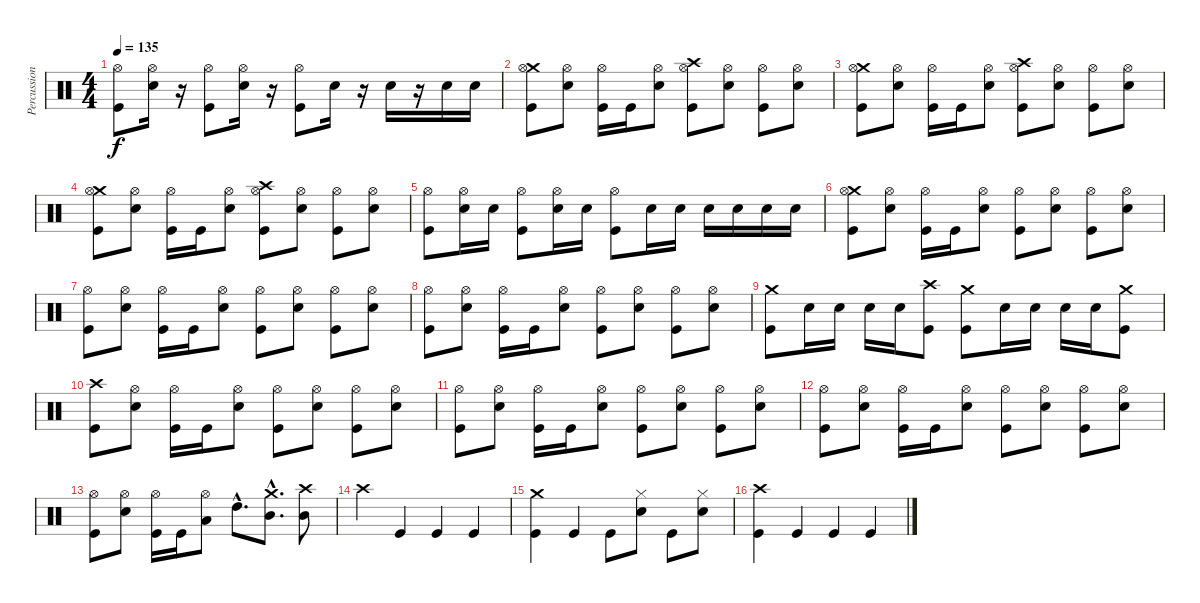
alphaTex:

\track ("Percussions" "Percussion") {instrument percussion}
\staff {score}
\articulation defaults
\ts (4 4)
\tempo 135
\clef neutral
\ks c
("Hi-Hat (open)" "Kick (hit)").8{dy f} ("Hi-Hat (open)" "Snare (hit) 2").16 r.16 ("Hi-Hat (open)" "Kick (hit)").8 ("Hi-Hat (open)" "Snare (hit) 2").16 r.16 ("Hi-Hat (open)" "Kick (hit)").8 "Snare (hit) 2".16 r.16 "Snare (hit) 2".16 r.16 "Snare (hit) 2".16 "Snare (hit) 2".16 |
("Crash medium (hit)" "Hi-Hat (open)" "Kick (hit)").8 ("Hi-Hat (open)" "Snare (hit) 2").8 ("Hi-Hat (open)" "Kick (hit)").16 "Kick (hit)".16 ("Hi-Hat (open)" "Snare (hit) 2").8 ("Crash high (hit)" "Hi-Hat (open)" "Kick (hit)").8 ("Hi-Hat (open)" "Snare (hit) 2").8 ("Hi-Hat (open)" "Kick (hit)").8 ("Hi-Hat (open)" "Snare (hit) 2").8 |
("Crash medium (hit)" "Hi-Hat (open)" "Kick (hit)").8 ("Hi-Hat (open)" "Snare (hit) 2").8 ("Hi-Hat (open)" "Kick (hit)").16 "Kick (hit)".16 ("Hi-Hat (open)" "Snare (hit) 2").8 ("Crash high (hit)" "Hi-Hat (open)" "Kick (hit)").8 ("Hi-Hat (open)" "Snare (hit) 2").8 ("Hi-Hat (open)" "Kick (hit)").8 ("Hi-Hat (open)" "Snare (hit) 2").8 |
("Crash medium (hit)" "Hi-Hat (open)" "Kick (hit)").8 ("Hi-Hat (open)" "Snare (hit) 2").8 ("Hi-Hat (open)" "Kick (hit)").16 "Kick (hit)".16 ("Hi-Hat (open)" "Snare (hit) 2").8 ("Crash high (hit)" "Hi-Hat (open)" "Kick (hit)").8 ("Hi-Hat (open)" "Snare (hit) 2").8 ("Hi-Hat (open)" "Kick (hit)").8 ("Hi-Hat (open)" "Snare (hit) 2").8 |
("Hi-Hat (open)" "Kick (hit)").8 ("Hi-Hat (open)" "Snare (hit) 2").16 "Snare (hit) 2".16 ("Hi-Hat (open)" "Kick (hit)").8 ("Hi-Hat (open)" "Snare (hit) 2").16 "Snare (hit) 2".16 ("Hi-Hat (open)" "Kick (hit)").8 "Snare (hit) 2".16 "Snare (hit) 2".16 "Snare (hit) 2".16 "Snare (hit) 2".16 "Snare (hit) 2".16 "Snare (hit) 2".16 |
("Crash medium (hit)" "Hi-Hat (open)" "Kick (hit)").8 ("Hi-Hat (open)" "Snare (hit) 2").8 ("Hi-Hat (open)" "Kick (hit)").16 "Kick (hit)".16 ("Hi-Hat (open)" "Snare (hit) 2").8 ("Hi-Hat (open)" "Kick (hit)").8 ("Hi-Hat (open)" "Snare (hit) 2").8 ("Hi-Hat (open)" "Kick (hit)").8 ("Hi-Hat (open)" "Snare (hit) 2").8 |
("Hi-Hat (open)" "Kick (hit)").8 ("Hi-Hat (open)" "Snare (hit) 2").8 ("Hi-Hat (open)" "Kick (hit)").16 "Kick (hit)".16 ("Hi-Hat (open)" "Snare (hit) 2").8 ("Hi-Hat (open)" "Kick (hit)").8 ("Hi-Hat (open)" "Snare (hit) 2").8 ("Hi-Hat (open)" "Kick (hit)").8 ("Hi-Hat (open)" "Snare (hit) 2").8 |
("Hi-Hat (open)" "Kick (hit)").8 ("Hi-Hat (open)" "Snare (hit) 2").8 ("Hi-Hat (open)" "Kick (hit)").16 "Kick (hit)".16 ("Hi-Hat (open)" "Snare (hit) 2").8 ("Hi-Hat (open)" "Kick (hit)").8 ("Hi-Hat (open)" "Snare (hit) 2").8 ("Hi-Hat (open)" "Kick (hit)").8 ("Hi-Hat (open)" "Snare (hit) 2").8 |
("Crash medium (hit)" "Kick (hit)").8 "Snare (hit) 2".16 "Snare (hit) 2".16 "Snare (hit) 2".16 "Snare (hit) 2".16 ("Crash high (hit)" "Kick (hit)").8 ("Crash medium (hit)" "Kick (hit)").8 "Snare (hit) 2".16 "Snare (hit) 2".16 "Snare (hit) 2".16 "Snare (hit) 2".16 ("Crash medium (hit)" "Kick (hit)").8 |
("Crash high (hit)" "Kick (hit)").8 ("Hi-Hat (open)" "Snare (hit) 2").8 ("Hi-Hat (open)" "Kick (hit)").16 "Kick (hit)".16 ("Hi-Hat (open)" "Snare (hit) 2").8 ("Hi-Hat (open)" "Kick (hit)").8 ("Hi-Hat (open)" "Snare (hit) 2").8 ("Hi-Hat (open)" "Kick (hit)").8 ("Hi-Hat (open)" "Snare (hit) 2").8 |
("Hi-Hat (open)" "Kick (hit)").8 ("Hi-Hat (open)" "Snare (hit) 2").8 ("Hi-Hat (open)" "Kick (hit)").16 "Kick (hit)".16 ("Hi-Hat (open)" "Snare (hit) 2").8 ("Hi-Hat (open)" "Kick (hit)").8 ("Hi-Hat (open)" "Snare (hit) 2").8 ("Hi-Hat (open)" "Kick (hit)").8 ("Hi-Hat (open)" "Snare (hit) 2").8 |
("Hi-Hat (open)" "Kick (hit)").8 ("Hi-Hat (open)" "Snare (hit) 2").8 ("Hi-Hat (open)" "Kick (hit)").16 "Kick (hit)".16 ("Hi-Hat (open)" "Snare (hit) 2").8 ("Hi-Hat (open)" "Kick (hit)").8 ("Hi-Hat (open)" "Snare (hit) 2").8 ("Hi-Hat (open)" "Kick (hit)").8 ("Hi-Hat (open)" "Snare (hit) 2").8 |
("Hi-Hat (open)" "Kick (hit)").8 ("Hi-Hat (open)" "Snare (hit) 2").8 ("Hi-Hat (open)" "Kick (hit)").16 "Kick (hit)".16 ("Hi-Hat (open)" "Low Floor Tom (hit)").8 "High Tom (hit)"{hac}.8{d} ("Crash medium (hit)"{hac} "Mid Tom (hit)"{hac}).8{d} ("Crash high (hit)" "Mid Tom (hit)").8 |
"Crash high (hit)".4 "Kick (hit)".4 "Kick (hit)".4 "Kick (hit)".4 |
("Crash medium (hit)" "Kick (hit)").4 "Kick (hit)".4 "Kick (hit)".8 ("Hi-Hat (closed)" "Snare (hit) 2").8 "Kick (hit)".8 ("Hi-Hat (closed)" "Snare (hit) 2").8 |
("Crash high (hit)" "Kick (hit)").4 "Kick (hit)".4 "Kick (hit)".4 "Kick (hit)".4
